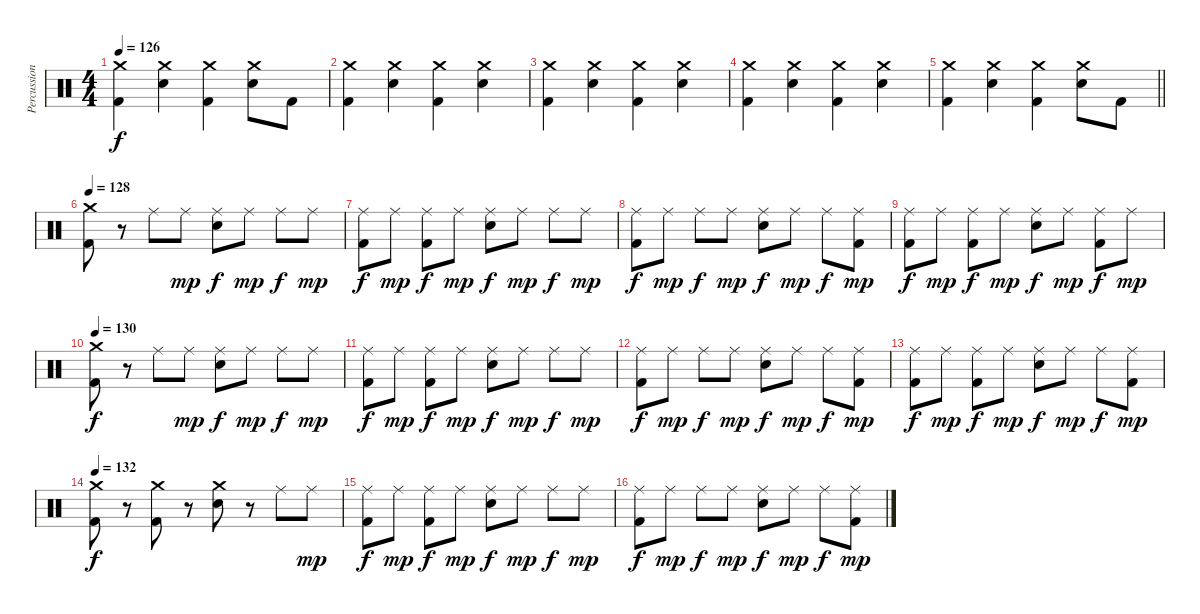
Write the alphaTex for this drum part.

\track ("Percussion" "Percussion") {instrument percussion}
\staff {score}
\articulation defaults
\ts (4 4)
\tempo 126
\clef neutral
\ks c
("Crash medium (hit)" "Kick (hit) 2").4{dy f} ("Crash medium (hit)" "Electric Snare (hit)").4 ("Crash medium (hit)" "Kick (hit) 2").4 ("Crash medium (hit)" "Electric Snare (hit)").8 "Kick (hit) 2".8 |
("Crash medium (hit)" "Kick (hit) 2").4 ("Crash medium (hit)" "Electric Snare (hit)").4 ("Crash medium (hit)" "Kick (hit) 2").4 ("Crash medium (hit)" "Electric Snare (hit)").4 |
("Crash medium (hit)" "Kick (hit) 2").4 ("Crash medium (hit)" "Electric Snare (hit)").4 ("Crash medium (hit)" "Kick (hit) 2").4 ("Crash medium (hit)" "Electric Snare (hit)").4 |
("Crash medium (hit)" "Kick (hit) 2").4 ("Crash medium (hit)" "Electric Snare (hit)").4 ("Crash medium (hit)" "Kick (hit) 2").4 ("Crash medium (hit)" "Electric Snare (hit)").4 |
\barLineRight lightlight
("Crash medium (hit)" "Kick (hit) 2").4 ("Crash medium (hit)" "Electric Snare (hit)").4 ("Crash medium (hit)" "Kick (hit) 2").4 ("Crash medium (hit)" "Electric Snare (hit)").8 "Kick (hit) 2".8 |
\section ("" "")
\tempo 128
("Crash medium (hit)" "Kick (hit) 2").8 r.8 "Ride (middle)".8 "Ride (middle)".8{dy mp} ("Ride (middle)" "Electric Snare (hit)").8{dy f} "Ride (middle)".8{dy mp} "Ride (middle)".8{dy f} "Ride (middle)".8{dy mp} |
("Ride (middle)" "Kick (hit) 2").8{dy f} "Ride (middle)".8{dy mp} ("Ride (middle)" "Kick (hit) 2").8{dy f} "Ride (middle)".8{dy mp} ("Ride (middle)" "Electric Snare (hit)").8{dy f} "Ride (middle)".8{dy mp} "Ride (middle)".8{dy f} "Ride (middle)".8{dy mp} |
("Ride (middle)" "Kick (hit) 2").8{dy f} "Ride (middle)".8{dy mp} "Ride (middle)".8{dy f} "Ride (middle)".8{dy mp} ("Ride (middle)" "Electric Snare (hit)").8{dy f} "Ride (middle)".8{dy mp} "Ride (middle)".8{dy f} ("Ride (middle)" "Kick (hit) 2").8{dy mp} |
("Ride (middle)" "Kick (hit) 2").8{dy f} "Ride (middle)".8{dy mp} ("Ride (middle)" "Kick (hit) 2").8{dy f} "Ride (middle)".8{dy mp} ("Ride (middle)" "Electric Snare (hit)").8{dy f} "Ride (middle)".8{dy mp} ("Ride (middle)" "Kick (hit) 2").8{dy f} "Ride (middle)".8{dy mp} |
\tempo 130
("Crash medium (hit)" "Kick (hit) 2").8{dy f} r.8 "Ride (middle)".8 "Ride (middle)".8{dy mp} ("Ride (middle)" "Electric Snare (hit)").8{dy f} "Ride (middle)".8{dy mp} "Ride (middle)".8{dy f} "Ride (middle)".8{dy mp} |
("Ride (middle)" "Kick (hit) 2").8{dy f} "Ride (middle)".8{dy mp} ("Ride (middle)" "Kick (hit) 2").8{dy f} "Ride (middle)".8{dy mp} ("Ride (middle)" "Electric Snare (hit)").8{dy f} "Ride (middle)".8{dy mp} "Ride (middle)".8{dy f} "Ride (middle)".8{dy mp} |
("Ride (middle)" "Kick (hit) 2").8{dy f} "Ride (middle)".8{dy mp} "Ride (middle)".8{dy f} "Ride (middle)".8{dy mp} ("Ride (middle)" "Electric Snare (hit)").8{dy f} "Ride (middle)".8{dy mp} "Ride (middle)".8{dy f} ("Ride (middle)" "Kick (hit) 2").8{dy mp} |
("Ride (middle)" "Kick (hit) 2").8{dy f} "Ride (middle)".8{dy mp} ("Ride (middle)" "Kick (hit) 2").8{dy f} "Ride (middle)".8{dy mp} ("Ride (middle)" "Electric Snare (hit)").8{dy f} "Ride (middle)".8{dy mp} "Ride (middle)".8{dy f} ("Ride (middle)" "Kick (hit) 2").8{dy mp} |
\tempo 132
("Crash medium (hit)" "Kick (hit) 2").8{dy f} r.8 ("Crash medium (hit)" "Kick (hit) 2").8 r.8 ("Crash medium (hit)" "Electric Snare (hit)").8 r.8 "Ride (middle)".8 "Ride (middle)".8{dy mp} |
("Ride (middle)" "Kick (hit) 2").8{dy f} "Ride (middle)".8{dy mp} ("Ride (middle)" "Kick (hit) 2").8{dy f} "Ride (middle)".8{dy mp} ("Ride (middle)" "Electric Snare (hit)").8{dy f} "Ride (middle)".8{dy mp} "Ride (middle)".8{dy f} "Ride (middle)".8{dy mp} |
("Ride (middle)" "Kick (hit) 2").8{dy f} "Ride (middle)".8{dy mp} "Ride (middle)".8{dy f} "Ride (middle)".8{dy mp} ("Ride (middle)" "Electric Snare (hit)").8{dy f} "Ride (middle)".8{dy mp} "Ride (middle)".8{dy f} ("Ride (middle)" "Kick (hit) 2").8{dy mp}
